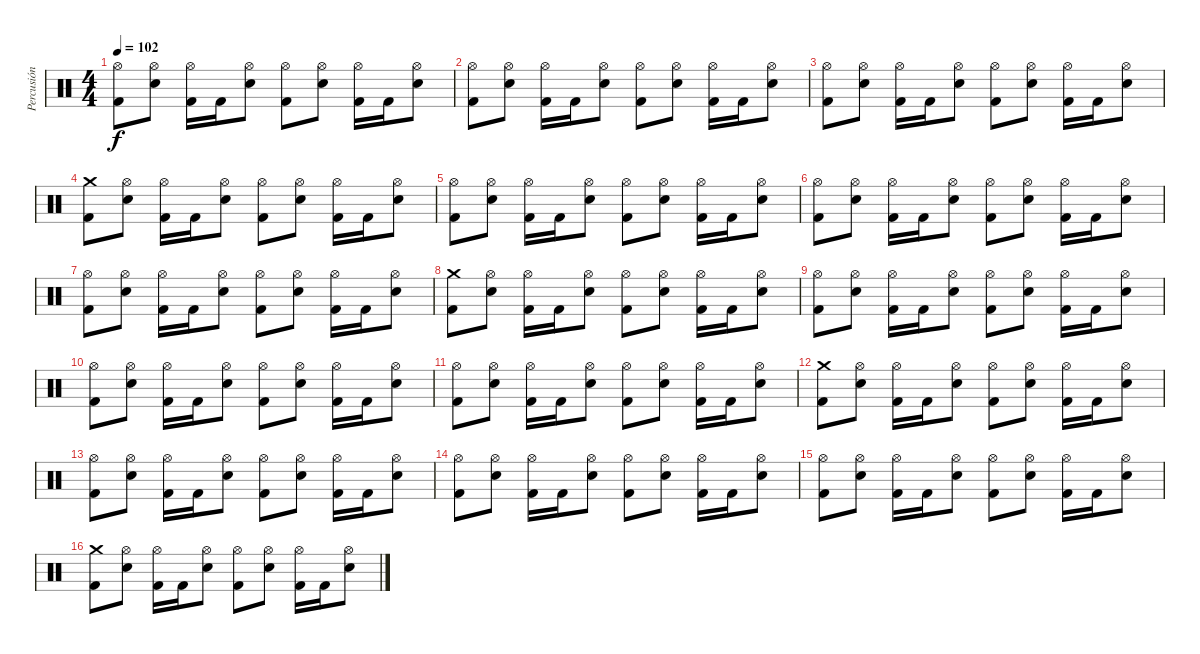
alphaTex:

\track ("Percusión" "Percusión") {instrument percussion}
\staff {score}
\articulation defaults
\ts (4 4)
\tempo 102
\clef neutral
\ks c
("Kick (hit) 2" "Hi-Hat (open)").8{dy f} ("Electric Snare (hit)" "Hi-Hat (open)").8 ("Kick (hit) 2" "Hi-Hat (open)").16 "Kick (hit) 2".16 ("Electric Snare (hit)" "Hi-Hat (open)").8 ("Kick (hit) 2" "Hi-Hat (open)").8 ("Electric Snare (hit)" "Hi-Hat (open)").8 ("Kick (hit) 2" "Hi-Hat (open)").16 "Kick (hit) 2".16 ("Electric Snare (hit)" "Hi-Hat (open)").8 |
("Kick (hit) 2" "Hi-Hat (open)").8 ("Electric Snare (hit)" "Hi-Hat (open)").8 ("Kick (hit) 2" "Hi-Hat (open)").16 "Kick (hit) 2".16 ("Electric Snare (hit)" "Hi-Hat (open)").8 ("Kick (hit) 2" "Hi-Hat (open)").8 ("Electric Snare (hit)" "Hi-Hat (open)").8 ("Kick (hit) 2" "Hi-Hat (open)").16 "Kick (hit) 2".16 ("Electric Snare (hit)" "Hi-Hat (open)").8 |
("Kick (hit) 2" "Hi-Hat (open)").8 ("Electric Snare (hit)" "Hi-Hat (open)").8 ("Kick (hit) 2" "Hi-Hat (open)").16 "Kick (hit) 2".16 ("Electric Snare (hit)" "Hi-Hat (open)").8 ("Kick (hit) 2" "Hi-Hat (open)").8 ("Electric Snare (hit)" "Hi-Hat (open)").8 ("Kick (hit) 2" "Hi-Hat (open)").16 "Kick (hit) 2".16 ("Electric Snare (hit)" "Hi-Hat (open)").8 |
("Kick (hit) 2" "Crash medium (hit)").8 ("Electric Snare (hit)" "Hi-Hat (open)").8 ("Kick (hit) 2" "Hi-Hat (open)").16 "Kick (hit) 2".16 ("Electric Snare (hit)" "Hi-Hat (open)").8 ("Kick (hit) 2" "Hi-Hat (open)").8 ("Electric Snare (hit)" "Hi-Hat (open)").8 ("Kick (hit) 2" "Hi-Hat (open)").16 "Kick (hit) 2".16 ("Electric Snare (hit)" "Hi-Hat (open)").8 |
("Kick (hit) 2" "Hi-Hat (open)").8 ("Electric Snare (hit)" "Hi-Hat (open)").8 ("Kick (hit) 2" "Hi-Hat (open)").16 "Kick (hit) 2".16 ("Electric Snare (hit)" "Hi-Hat (open)").8 ("Kick (hit) 2" "Hi-Hat (open)").8 ("Electric Snare (hit)" "Hi-Hat (open)").8 ("Kick (hit) 2" "Hi-Hat (open)").16 "Kick (hit) 2".16 ("Electric Snare (hit)" "Hi-Hat (open)").8 |
("Kick (hit) 2" "Hi-Hat (open)").8 ("Electric Snare (hit)" "Hi-Hat (open)").8 ("Kick (hit) 2" "Hi-Hat (open)").16 "Kick (hit) 2".16 ("Electric Snare (hit)" "Hi-Hat (open)").8 ("Kick (hit) 2" "Hi-Hat (open)").8 ("Electric Snare (hit)" "Hi-Hat (open)").8 ("Kick (hit) 2" "Hi-Hat (open)").16 "Kick (hit) 2".16 ("Electric Snare (hit)" "Hi-Hat (open)").8 |
("Kick (hit) 2" "Hi-Hat (open)").8 ("Electric Snare (hit)" "Hi-Hat (open)").8 ("Kick (hit) 2" "Hi-Hat (open)").16 "Kick (hit) 2".16 ("Electric Snare (hit)" "Hi-Hat (open)").8 ("Kick (hit) 2" "Hi-Hat (open)").8 ("Electric Snare (hit)" "Hi-Hat (open)").8 ("Kick (hit) 2" "Hi-Hat (open)").16 "Kick (hit) 2".16 ("Electric Snare (hit)" "Hi-Hat (open)").8 |
("Kick (hit) 2" "Crash medium (hit)").8 ("Electric Snare (hit)" "Hi-Hat (open)").8 ("Kick (hit) 2" "Hi-Hat (open)").16 "Kick (hit) 2".16 ("Electric Snare (hit)" "Hi-Hat (open)").8 ("Kick (hit) 2" "Hi-Hat (open)").8 ("Electric Snare (hit)" "Hi-Hat (open)").8 ("Kick (hit) 2" "Hi-Hat (open)").16 "Kick (hit) 2".16 ("Electric Snare (hit)" "Hi-Hat (open)").8 |
("Kick (hit) 2" "Hi-Hat (open)").8 ("Electric Snare (hit)" "Hi-Hat (open)").8 ("Kick (hit) 2" "Hi-Hat (open)").16 "Kick (hit) 2".16 ("Electric Snare (hit)" "Hi-Hat (open)").8 ("Kick (hit) 2" "Hi-Hat (open)").8 ("Electric Snare (hit)" "Hi-Hat (open)").8 ("Kick (hit) 2" "Hi-Hat (open)").16 "Kick (hit) 2".16 ("Electric Snare (hit)" "Hi-Hat (open)").8 |
("Kick (hit) 2" "Hi-Hat (open)").8 ("Electric Snare (hit)" "Hi-Hat (open)").8 ("Kick (hit) 2" "Hi-Hat (open)").16 "Kick (hit) 2".16 ("Electric Snare (hit)" "Hi-Hat (open)").8 ("Kick (hit) 2" "Hi-Hat (open)").8 ("Electric Snare (hit)" "Hi-Hat (open)").8 ("Kick (hit) 2" "Hi-Hat (open)").16 "Kick (hit) 2".16 ("Electric Snare (hit)" "Hi-Hat (open)").8 |
("Kick (hit) 2" "Hi-Hat (open)").8 ("Electric Snare (hit)" "Hi-Hat (open)").8 ("Kick (hit) 2" "Hi-Hat (open)").16 "Kick (hit) 2".16 ("Electric Snare (hit)" "Hi-Hat (open)").8 ("Kick (hit) 2" "Hi-Hat (open)").8 ("Electric Snare (hit)" "Hi-Hat (open)").8 ("Kick (hit) 2" "Hi-Hat (open)").16 "Kick (hit) 2".16 ("Electric Snare (hit)" "Hi-Hat (open)").8 |
("Kick (hit) 2" "Crash medium (hit)").8 ("Electric Snare (hit)" "Hi-Hat (open)").8 ("Kick (hit) 2" "Hi-Hat (open)").16 "Kick (hit) 2".16 ("Electric Snare (hit)" "Hi-Hat (open)").8 ("Kick (hit) 2" "Hi-Hat (open)").8 ("Electric Snare (hit)" "Hi-Hat (open)").8 ("Kick (hit) 2" "Hi-Hat (open)").16 "Kick (hit) 2".16 ("Electric Snare (hit)" "Hi-Hat (open)").8 |
("Kick (hit) 2" "Hi-Hat (open)").8 ("Electric Snare (hit)" "Hi-Hat (open)").8 ("Kick (hit) 2" "Hi-Hat (open)").16 "Kick (hit) 2".16 ("Electric Snare (hit)" "Hi-Hat (open)").8 ("Kick (hit) 2" "Hi-Hat (open)").8 ("Electric Snare (hit)" "Hi-Hat (open)").8 ("Kick (hit) 2" "Hi-Hat (open)").16 "Kick (hit) 2".16 ("Electric Snare (hit)" "Hi-Hat (open)").8 |
("Kick (hit) 2" "Hi-Hat (open)").8 ("Electric Snare (hit)" "Hi-Hat (open)").8 ("Kick (hit) 2" "Hi-Hat (open)").16 "Kick (hit) 2".16 ("Electric Snare (hit)" "Hi-Hat (open)").8 ("Kick (hit) 2" "Hi-Hat (open)").8 ("Electric Snare (hit)" "Hi-Hat (open)").8 ("Kick (hit) 2" "Hi-Hat (open)").16 "Kick (hit) 2".16 ("Electric Snare (hit)" "Hi-Hat (open)").8 |
("Kick (hit) 2" "Hi-Hat (open)").8 ("Electric Snare (hit)" "Hi-Hat (open)").8 ("Kick (hit) 2" "Hi-Hat (open)").16 "Kick (hit) 2".16 ("Electric Snare (hit)" "Hi-Hat (open)").8 ("Kick (hit) 2" "Hi-Hat (open)").8 ("Electric Snare (hit)" "Hi-Hat (open)").8 ("Kick (hit) 2" "Hi-Hat (open)").16 "Kick (hit) 2".16 ("Electric Snare (hit)" "Hi-Hat (open)").8 |
("Kick (hit) 2" "Crash medium (hit)").8 ("Electric Snare (hit)" "Hi-Hat (open)").8 ("Kick (hit) 2" "Hi-Hat (open)").16 "Kick (hit) 2".16 ("Electric Snare (hit)" "Hi-Hat (open)").8 ("Kick (hit) 2" "Hi-Hat (open)").8 ("Electric Snare (hit)" "Hi-Hat (open)").8 ("Kick (hit) 2" "Hi-Hat (open)").16 "Kick (hit) 2".16 ("Electric Snare (hit)" "Hi-Hat (open)").8
